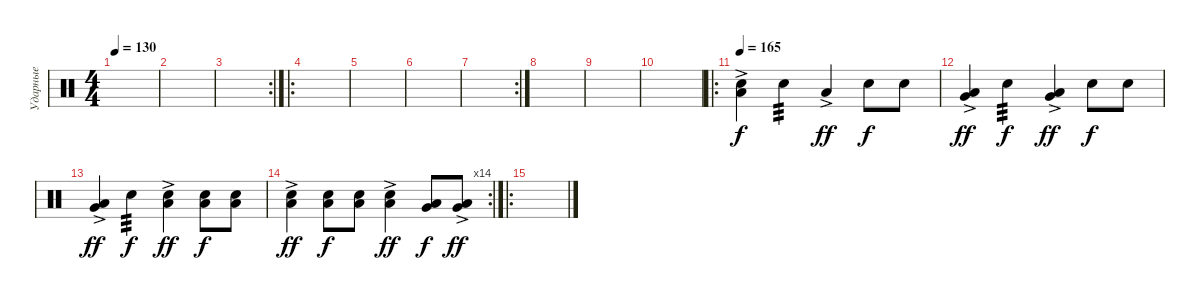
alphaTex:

\track ("Ударные" "Ударные") {instrument percussion}
\staff {score}
\articulation defaults
\ts (4 4)
\tempo 130
\clef neutral
\ks c
|
|
\rc 2
|
\ro
|
|
|
\rc 2
|
|
|
|
\ro
\tempo 165
("Low Floor Tom (hit)"{ac} "Snare (hit) 2").4 "Snare (hit) 2".4{tp 3 dy f} "Low Floor Tom (hit)"{ac}.4{dy ff} "Snare (hit) 2".8{dy f} "Snare (hit) 2".8 |
("Low Floor Tom (hit)"{ac} "Very Low Tom (hit)").4{dy ff} "Snare (hit) 2".4{tp 3 dy f} ("Low Floor Tom (hit)"{ac} "Very Low Tom (hit)").4{dy ff} "Snare (hit) 2".8{dy f} "Snare (hit) 2".8 |
("Low Floor Tom (hit)"{ac} "Very Low Tom (hit)").4{dy ff} "Snare (hit) 2".4{tp 3 dy f} ("Low Floor Tom (hit)"{ac} "Snare (hit) 2").4{dy ff} ("Low Floor Tom (hit)" "Snare (hit) 2").8{dy f} ("Low Floor Tom (hit)" "Snare (hit) 2").8 |
\rc 14
("Low Floor Tom (hit)"{ac} "Snare (hit) 2").4{dy ff} ("Low Floor Tom (hit)" "Snare (hit) 2").8{dy f} ("Low Floor Tom (hit)" "Snare (hit) 2").8 ("Low Floor Tom (hit)"{ac} "Snare (hit) 2").4{dy ff} ("Low Floor Tom (hit)" "Very Low Tom (hit)").8{dy f} ("Low Floor Tom (hit)"{ac} "Very Low Tom (hit)").8{dy ff} |
\ro
